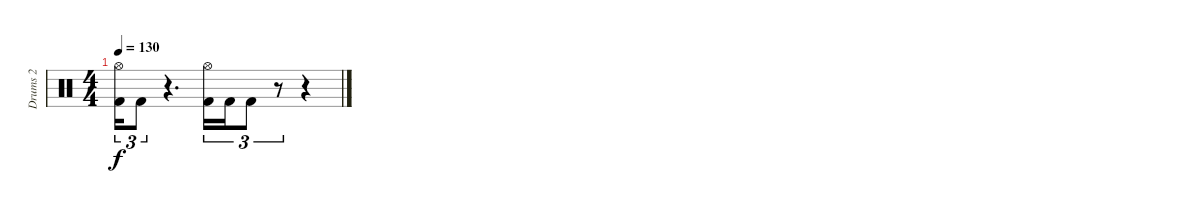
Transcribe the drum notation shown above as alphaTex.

\track ("Drums 2" "Drums 2") {instrument percussion}
\staff {score}
\articulation defaults
\ts (4 4)
\tempo 130
\clef neutral
\ks c
("Hi-Hat (open)" "Kick (hit) 2").16{tu (3 2) dy f} "Kick (hit) 2".8{tu (3 2)} r.4{d} ("Hi-Hat (open)" "Kick (hit) 2").16{tu (3 2)} "Kick (hit) 2".16{tu (3 2)} "Kick (hit) 2".8{tu (3 2)} r.8{tu (3 2)} r.4
